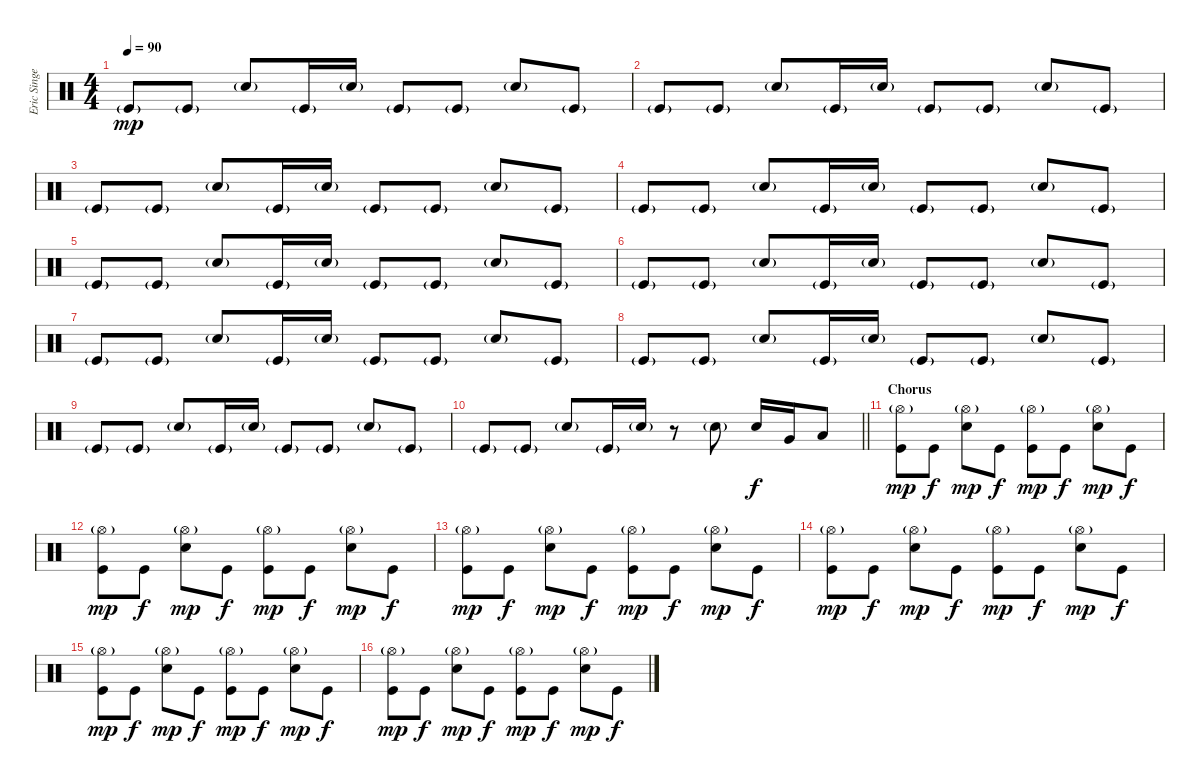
\track ("Eric Singer (Drums)" "Eric Singe") {instrument percussion}
\staff {score}
\articulation defaults
\ts (4 4)
\tempo 90
\clef neutral
\ks c "Kick (hit)"{g}.8{dy mp} "Kick (hit)"{g}.8 "Snare (hit) 2"{g}.8 "Kick (hit)"{g}.16 "Snare (hit) 2"{g}.16 "Kick (hit)"{g}.8 "Kick (hit)"{g}.8 "Snare (hit) 2"{g}.8 "Kick (hit)"{g}.8
|
"Kick (hit)"{g}.8 "Kick (hit)"{g}.8 "Snare (hit) 2"{g}.8 "Kick (hit)"{g}.16 "Snare (hit) 2"{g}.16 "Kick (hit)"{g}.8 "Kick (hit)"{g}.8 "Snare (hit) 2"{g}.8 "Kick (hit)"{g}.8 |
"Kick (hit)"{g}.8 "Kick (hit)"{g}.8 "Snare (hit) 2"{g}.8 "Kick (hit)"{g}.16 "Snare (hit) 2"{g}.16 "Kick (hit)"{g}.8 "Kick (hit)"{g}.8 "Snare (hit) 2"{g}.8 "Kick (hit)"{g}.8 |
"Kick (hit)"{g}.8 "Kick (hit)"{g}.8 "Snare (hit) 2"{g}.8 "Kick (hit)"{g}.16 "Snare (hit) 2"{g}.16 "Kick (hit)"{g}.8 "Kick (hit)"{g}.8 "Snare (hit) 2"{g}.8 "Kick (hit)"{g}.8 |
"Kick (hit)"{g}.8 "Kick (hit)"{g}.8 "Snare (hit) 2"{g}.8 "Kick (hit)"{g}.16 "Snare (hit) 2"{g}.16 "Kick (hit)"{g}.8 "Kick (hit)"{g}.8 "Snare (hit) 2"{g}.8 "Kick (hit)"{g}.8 |
"Kick (hit)"{g}.8 "Kick (hit)"{g}.8 "Snare (hit) 2"{g}.8 "Kick (hit)"{g}.16 "Snare (hit) 2"{g}.16 "Kick (hit)"{g}.8 "Kick (hit)"{g}.8 "Snare (hit) 2"{g}.8 "Kick (hit)"{g}.8 |
"Kick (hit)"{g}.8 "Kick (hit)"{g}.8 "Snare (hit) 2"{g}.8 "Kick (hit)"{g}.16 "Snare (hit) 2"{g}.16 "Kick (hit)"{g}.8 "Kick (hit)"{g}.8 "Snare (hit) 2"{g}.8 "Kick (hit)"{g}.8 |
"Kick (hit)"{g}.8 "Kick (hit)"{g}.8 "Snare (hit) 2"{g}.8 "Kick (hit)"{g}.16 "Snare (hit) 2"{g}.16 "Kick (hit)"{g}.8 "Kick (hit)"{g}.8 "Snare (hit) 2"{g}.8 "Kick (hit)"{g}.8 |
"Kick (hit)"{g}.8 "Kick (hit)"{g}.8 "Snare (hit) 2"{g}.8 "Kick (hit)"{g}.16 "Snare (hit) 2"{g}.16 "Kick (hit)"{g}.8 "Kick (hit)"{g}.8 "Snare (hit) 2"{g}.8 "Kick (hit)"{g}.8 |
\barLineRight lightlight "Kick (hit)"{g}.8 "Kick (hit)"{g}.8 "Snare (hit) 2"{g}.8 "Kick (hit)"{g}.16 "Snare (hit) 2"{g}.16
r.8 "Snare (hit) 2"{g}.8 "Snare (hit) 2".16{dy f} "Very Low Tom (hit)".16 "Low Floor Tom (hit)".8 |
\section ("" "Chorus")
("Hi-Hat (open)"{g} "Kick (hit)").8{dy mp} "Kick (hit)".8{dy f} ("Hi-Hat (open)"{g} "Snare (hit) 2").8{dy mp} "Kick (hit)".8{dy f} ("Hi-Hat (open)"{g} "Kick (hit)").8{dy mp} "Kick (hit)".8{dy f} ("Hi-Hat (open)"{g} "Snare (hit) 2").8{dy mp} "Kick (hit)".8{dy f} |
("Hi-Hat (open)"{g} "Kick (hit)").8{dy mp} "Kick (hit)".8{dy f} ("Hi-Hat (open)"{g} "Snare (hit) 2").8{dy mp} "Kick (hit)".8{dy f} ("Hi-Hat (open)"{g} "Kick (hit)").8{dy mp} "Kick (hit)".8{dy f} ("Hi-Hat (open)"{g} "Snare (hit) 2").8{dy mp} "Kick (hit)".8{dy f} |
("Hi-Hat (open)"{g} "Kick (hit)").8{dy mp} "Kick (hit)".8{dy f} ("Hi-Hat (open)"{g} "Snare (hit) 2").8{dy mp} "Kick (hit)".8{dy f} ("Hi-Hat (open)"{g} "Kick (hit)").8{dy mp} "Kick (hit)".8{dy f} ("Hi-Hat (open)"{g} "Snare (hit) 2").8{dy mp} "Kick (hit)".8{dy f} |
("Hi-Hat (open)"{g} "Kick (hit)").8{dy mp} "Kick (hit)".8{dy f} ("Hi-Hat (open)"{g} "Snare (hit) 2").8{dy mp} "Kick (hit)".8{dy f} ("Hi-Hat (open)"{g} "Kick (hit)").8{dy mp} "Kick (hit)".8{dy f} ("Hi-Hat (open)"{g} "Snare (hit) 2").8{dy mp} "Kick (hit)".8{dy f} |
("Hi-Hat (open)"{g} "Kick (hit)").8{dy mp} "Kick (hit)".8{dy f} ("Hi-Hat (open)"{g} "Snare (hit) 2").8{dy mp} "Kick (hit)".8{dy f} ("Hi-Hat (open)"{g} "Kick (hit)").8{dy mp} "Kick (hit)".8{dy f} ("Hi-Hat (open)"{g} "Snare (hit) 2").8{dy mp} "Kick (hit)".8{dy f} |
("Hi-Hat (open)"{g} "Kick (hit)").8{dy mp} "Kick (hit)".8{dy f} ("Hi-Hat (open)"{g} "Snare (hit) 2").8{dy mp} "Kick (hit)".8{dy f} ("Hi-Hat (open)"{g} "Kick (hit)").8{dy mp} "Kick (hit)".8{dy f} ("Hi-Hat (open)"{g} "Snare (hit) 2").8{dy mp} "Kick (hit)".8{dy f}
